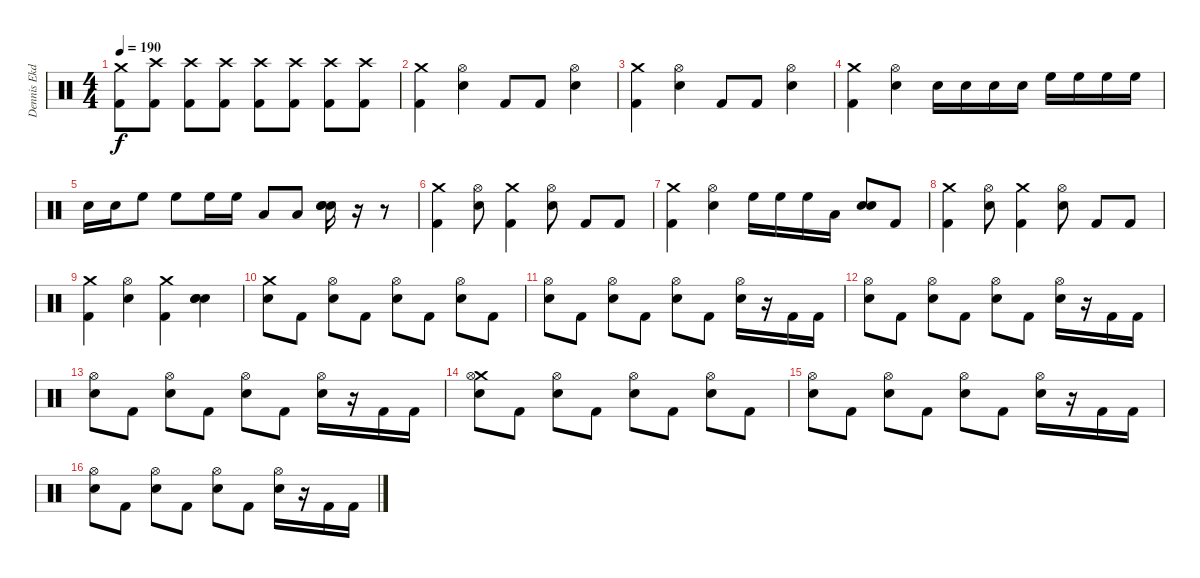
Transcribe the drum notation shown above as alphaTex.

\track ("Dennis Ekdahl" "Dennis Ekd") {instrument percussion}
\staff {score}
\articulation defaults
\ts (4 4)
\tempo 190
\clef neutral
\ks c
("Crash medium (hit)" "Kick (hit) 2").8{dy f} ("Crash high (hit)" "Kick (hit) 2").8 ("Crash high (hit)" "Kick (hit) 2").8 ("Crash high (hit)" "Kick (hit) 2").8 ("Crash high (hit)" "Kick (hit) 2").8 ("Crash high (hit)" "Kick (hit) 2").8 ("Crash high (hit)" "Kick (hit) 2").8 ("Crash high (hit)" "Kick (hit) 2").8 |
("Crash medium (hit)" "Kick (hit) 2").4 ("Hi-Hat (open)" "Snare (hit) 2").4 "Kick (hit) 2".8 "Kick (hit) 2".8 ("Hi-Hat (open)" "Snare (hit) 2").4 |
("Crash medium (hit)" "Kick (hit) 2").4 ("Hi-Hat (open)" "Snare (hit) 2").4 "Kick (hit) 2".8 "Kick (hit) 2".8 ("Hi-Hat (open)" "Snare (hit) 2").4 |
("Crash medium (hit)" "Kick (hit) 2").4 ("Hi-Hat (open)" "Snare (hit) 2").4 "Snare (hit) 2".16 "Snare (hit) 2".16 "Snare (hit) 2".16 "Snare (hit) 2".16 "High Floor Tom (hit)".16 "High Floor Tom (hit)".16 "High Floor Tom (hit)".16 "High Floor Tom (hit)".16 |
"Snare (hit) 2".16 "Snare (hit) 2".16 "High Floor Tom (hit)".8 "High Floor Tom (hit)".8 "High Floor Tom (hit)".16 "High Floor Tom (hit)".16 "Low Tom (hit)".8 "Low Tom (hit)".8 ("Snare (hit) 2" "Snare (hit) 2" "Snare (hit) 2").16 r.16 r.8 |
("Crash medium (hit)" "Kick (hit) 2").4 ("Hi-Hat (open)" "Snare (hit) 2").8 ("Crash medium (hit)" "Kick (hit) 2").4 ("Hi-Hat (open)" "Snare (hit) 2").8 "Kick (hit) 2".8 "Kick (hit) 2".8 |
("Crash medium (hit)" "Kick (hit) 2").4 ("Hi-Hat (open)" "Snare (hit) 2").4 "High Floor Tom (hit)".16 "High Floor Tom (hit)".16 "High Floor Tom (hit)".16 "Low Tom (hit)".16 ("Snare (hit) 2" "Snare (hit) 2").8 "Kick (hit) 2".8 |
("Crash medium (hit)" "Kick (hit) 2").4 ("Hi-Hat (open)" "Snare (hit) 2").8 ("Crash medium (hit)" "Kick (hit) 2").4 ("Hi-Hat (open)" "Snare (hit) 2").8 "Kick (hit) 2".8 "Kick (hit) 2".8 |
("Crash medium (hit)" "Kick (hit) 2").4 ("Hi-Hat (open)" "Snare (hit) 2").4 ("Crash medium (hit)" "Kick (hit) 2").4 ("Snare (hit) 2" "Snare (hit) 2" "Snare (hit) 2").4 |
("Crash medium (hit)" "Snare (hit) 2").8 "Kick (hit) 2".8 ("Hi-Hat (open)" "Snare (hit) 2").8 "Kick (hit) 2".8 ("Hi-Hat (open)" "Snare (hit) 2").8 "Kick (hit) 2".8 ("Hi-Hat (open)" "Snare (hit) 2").8 "Kick (hit) 2".8 |
("Hi-Hat (open)" "Snare (hit) 2").8 "Kick (hit) 2".8 ("Hi-Hat (open)" "Snare (hit) 2").8 "Kick (hit) 2".8 ("Hi-Hat (open)" "Snare (hit) 2").8 "Kick (hit) 2".8 ("Hi-Hat (open)" "Snare (hit) 2").16 r.16 "Kick (hit) 2".16 "Kick (hit) 2".16 |
("Hi-Hat (open)" "Snare (hit) 2").8 "Kick (hit) 2".8 ("Hi-Hat (open)" "Snare (hit) 2").8 "Kick (hit) 2".8 ("Hi-Hat (open)" "Snare (hit) 2").8 "Kick (hit) 2".8 ("Hi-Hat (open)" "Snare (hit) 2").16 r.16 "Kick (hit) 2".16 "Kick (hit) 2".16 |
("Hi-Hat (open)" "Snare (hit) 2").8 "Kick (hit) 2".8 ("Hi-Hat (open)" "Snare (hit) 2").8 "Kick (hit) 2".8 ("Hi-Hat (open)" "Snare (hit) 2").8 "Kick (hit) 2".8 ("Hi-Hat (open)" "Snare (hit) 2").16 r.16 "Kick (hit) 2".16 "Kick (hit) 2".16 |
("Crash medium (hit)" "Hi-Hat (open)" "Snare (hit) 2").8 "Kick (hit) 2".8 ("Hi-Hat (open)" "Snare (hit) 2").8 "Kick (hit) 2".8 ("Hi-Hat (open)" "Snare (hit) 2").8 "Kick (hit) 2".8 ("Hi-Hat (open)" "Snare (hit) 2").8 "Kick (hit) 2".8 |
("Hi-Hat (open)" "Snare (hit) 2").8 "Kick (hit) 2".8 ("Hi-Hat (open)" "Snare (hit) 2").8 "Kick (hit) 2".8 ("Hi-Hat (open)" "Snare (hit) 2").8 "Kick (hit) 2".8 ("Hi-Hat (open)" "Snare (hit) 2").16 r.16 "Kick (hit) 2".16 "Kick (hit) 2".16 |
("Hi-Hat (open)" "Snare (hit) 2").8 "Kick (hit) 2".8 ("Hi-Hat (open)" "Snare (hit) 2").8 "Kick (hit) 2".8 ("Hi-Hat (open)" "Snare (hit) 2").8 "Kick (hit) 2".8 ("Hi-Hat (open)" "Snare (hit) 2").16 r.16 "Kick (hit) 2".16 "Kick (hit) 2".16
